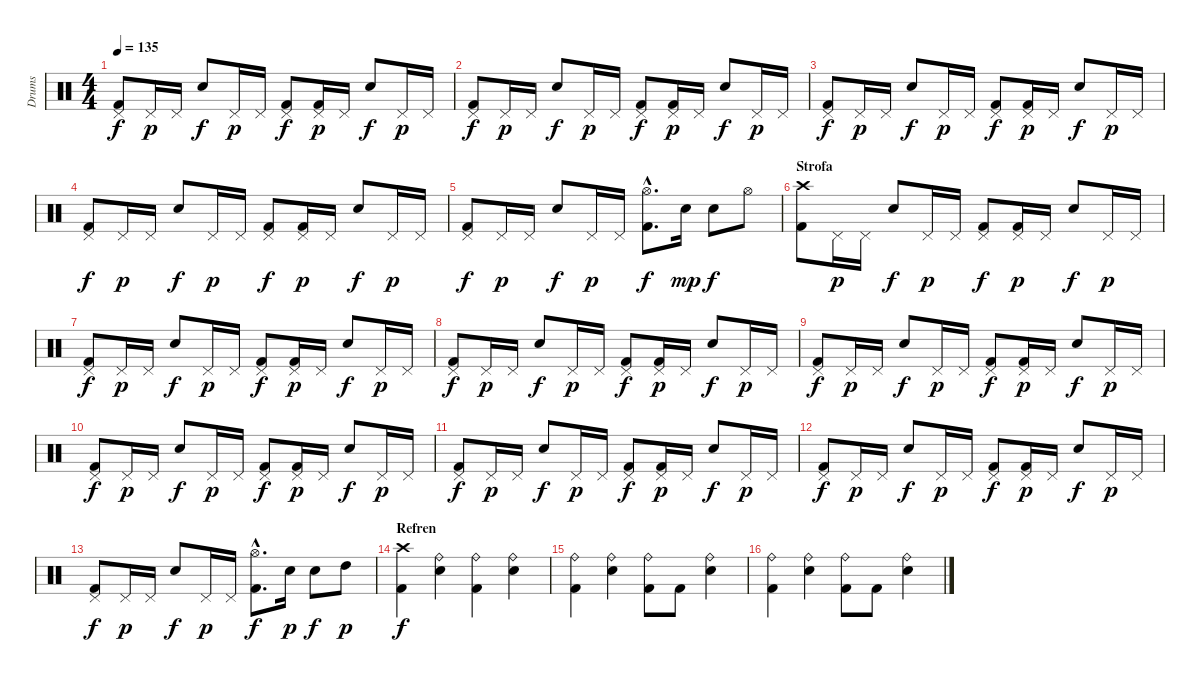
\track ("Drums" "Drums") {instrument percussion}
\staff {score}
\articulation defaults
\ts (4 4)
\tempo 135
\clef neutral
\ks c
("Pedal Hi-Hat (hit)" "Kick (hit) 2").8{dy f} "Pedal Hi-Hat (hit)".16{dy p} "Pedal Hi-Hat (hit)".16 "Electric Snare (hit)".8{dy f} "Pedal Hi-Hat (hit)".16{dy p} "Pedal Hi-Hat (hit)".16 ("Pedal Hi-Hat (hit)" "Kick (hit) 2").8{dy f} ("Pedal Hi-Hat (hit)" "Kick (hit) 2").16{dy p} "Pedal Hi-Hat (hit)".16 "Electric Snare (hit)".8{dy f} "Pedal Hi-Hat (hit)".16{dy p} "Pedal Hi-Hat (hit)".16 |
("Pedal Hi-Hat (hit)" "Kick (hit) 2").8{dy f} "Pedal Hi-Hat (hit)".16{dy p} "Pedal Hi-Hat (hit)".16 "Electric Snare (hit)".8{dy f} "Pedal Hi-Hat (hit)".16{dy p} "Pedal Hi-Hat (hit)".16 ("Pedal Hi-Hat (hit)" "Kick (hit) 2").8{dy f} ("Pedal Hi-Hat (hit)" "Kick (hit) 2").16{dy p} "Pedal Hi-Hat (hit)".16 "Electric Snare (hit)".8{dy f} "Pedal Hi-Hat (hit)".16{dy p} "Pedal Hi-Hat (hit)".16 |
("Pedal Hi-Hat (hit)" "Kick (hit) 2").8{dy f} "Pedal Hi-Hat (hit)".16{dy p} "Pedal Hi-Hat (hit)".16 "Electric Snare (hit)".8{dy f} "Pedal Hi-Hat (hit)".16{dy p} "Pedal Hi-Hat (hit)".16 ("Pedal Hi-Hat (hit)" "Kick (hit) 2").8{dy f} ("Pedal Hi-Hat (hit)" "Kick (hit) 2").16{dy p} "Pedal Hi-Hat (hit)".16 "Electric Snare (hit)".8{dy f} "Pedal Hi-Hat (hit)".16{dy p} "Pedal Hi-Hat (hit)".16 |
("Pedal Hi-Hat (hit)" "Kick (hit) 2").8{dy f} "Pedal Hi-Hat (hit)".16{dy p} "Pedal Hi-Hat (hit)".16 "Electric Snare (hit)".8{dy f} "Pedal Hi-Hat (hit)".16{dy p} "Pedal Hi-Hat (hit)".16 ("Pedal Hi-Hat (hit)" "Kick (hit) 2").8{dy f} ("Pedal Hi-Hat (hit)" "Kick (hit) 2").16{dy p} "Pedal Hi-Hat (hit)".16 "Electric Snare (hit)".8{dy f} "Pedal Hi-Hat (hit)".16{dy p} "Pedal Hi-Hat (hit)".16 |
("Pedal Hi-Hat (hit)" "Kick (hit) 2").8{dy f} "Pedal Hi-Hat (hit)".16{dy p} "Pedal Hi-Hat (hit)".16 "Electric Snare (hit)".8{dy f} "Pedal Hi-Hat (hit)".16{dy p} "Pedal Hi-Hat (hit)".16 ("Hi-Hat (open)"{hac} "Kick (hit) 2"{hac}).8{d dy f} "Electric Snare (hit)".16{dy mp} "Electric Snare (hit)".8{dy f} "Hi-Hat (open)".8 |
\section ("" "Strofa")
("Crash high (hit)" "Kick (hit) 2").8 "Pedal Hi-Hat (hit)".16{dy p} "Pedal Hi-Hat (hit)".16 "Electric Snare (hit)".8{dy f} "Pedal Hi-Hat (hit)".16{dy p} "Pedal Hi-Hat (hit)".16 ("Pedal Hi-Hat (hit)" "Kick (hit) 2").8{dy f} ("Pedal Hi-Hat (hit)" "Kick (hit) 2").16{dy p} "Pedal Hi-Hat (hit)".16 "Electric Snare (hit)".8{dy f} "Pedal Hi-Hat (hit)".16{dy p} "Pedal Hi-Hat (hit)".16 |
("Pedal Hi-Hat (hit)" "Kick (hit) 2").8{dy f} "Pedal Hi-Hat (hit)".16{dy p} "Pedal Hi-Hat (hit)".16 "Electric Snare (hit)".8{dy f} "Pedal Hi-Hat (hit)".16{dy p} "Pedal Hi-Hat (hit)".16 ("Pedal Hi-Hat (hit)" "Kick (hit) 2").8{dy f} ("Pedal Hi-Hat (hit)" "Kick (hit) 2").16{dy p} "Pedal Hi-Hat (hit)".16 "Electric Snare (hit)".8{dy f} "Pedal Hi-Hat (hit)".16{dy p} "Pedal Hi-Hat (hit)".16 |
("Pedal Hi-Hat (hit)" "Kick (hit) 2").8{dy f} "Pedal Hi-Hat (hit)".16{dy p} "Pedal Hi-Hat (hit)".16 "Electric Snare (hit)".8{dy f} "Pedal Hi-Hat (hit)".16{dy p} "Pedal Hi-Hat (hit)".16 ("Pedal Hi-Hat (hit)" "Kick (hit) 2").8{dy f} ("Pedal Hi-Hat (hit)" "Kick (hit) 2").16{dy p} "Pedal Hi-Hat (hit)".16 "Electric Snare (hit)".8{dy f} "Pedal Hi-Hat (hit)".16{dy p} "Pedal Hi-Hat (hit)".16 |
("Pedal Hi-Hat (hit)" "Kick (hit) 2").8{dy f} "Pedal Hi-Hat (hit)".16{dy p} "Pedal Hi-Hat (hit)".16 "Electric Snare (hit)".8{dy f} "Pedal Hi-Hat (hit)".16{dy p} "Pedal Hi-Hat (hit)".16 ("Pedal Hi-Hat (hit)" "Kick (hit) 2").8{dy f} ("Pedal Hi-Hat (hit)" "Kick (hit) 2").16{dy p} "Pedal Hi-Hat (hit)".16 "Electric Snare (hit)".8{dy f} "Pedal Hi-Hat (hit)".16{dy p} "Pedal Hi-Hat (hit)".16 |
("Pedal Hi-Hat (hit)" "Kick (hit) 2").8{dy f} "Pedal Hi-Hat (hit)".16{dy p} "Pedal Hi-Hat (hit)".16 "Electric Snare (hit)".8{dy f} "Pedal Hi-Hat (hit)".16{dy p} "Pedal Hi-Hat (hit)".16 ("Pedal Hi-Hat (hit)" "Kick (hit) 2").8{dy f} ("Pedal Hi-Hat (hit)" "Kick (hit) 2").16{dy p} "Pedal Hi-Hat (hit)".16 "Electric Snare (hit)".8{dy f} "Pedal Hi-Hat (hit)".16{dy p} "Pedal Hi-Hat (hit)".16 |
("Pedal Hi-Hat (hit)" "Kick (hit) 2").8{dy f} "Pedal Hi-Hat (hit)".16{dy p} "Pedal Hi-Hat (hit)".16 "Electric Snare (hit)".8{dy f} "Pedal Hi-Hat (hit)".16{dy p} "Pedal Hi-Hat (hit)".16 ("Pedal Hi-Hat (hit)" "Kick (hit) 2").8{dy f} ("Pedal Hi-Hat (hit)" "Kick (hit) 2").16{dy p} "Pedal Hi-Hat (hit)".16 "Electric Snare (hit)".8{dy f} "Pedal Hi-Hat (hit)".16{dy p} "Pedal Hi-Hat (hit)".16 |
("Pedal Hi-Hat (hit)" "Kick (hit) 2").8{dy f} "Pedal Hi-Hat (hit)".16{dy p} "Pedal Hi-Hat (hit)".16 "Electric Snare (hit)".8{dy f} "Pedal Hi-Hat (hit)".16{dy p} "Pedal Hi-Hat (hit)".16 ("Pedal Hi-Hat (hit)" "Kick (hit) 2").8{dy f} ("Pedal Hi-Hat (hit)" "Kick (hit) 2").16{dy p} "Pedal Hi-Hat (hit)".16 "Electric Snare (hit)".8{dy f} "Pedal Hi-Hat (hit)".16{dy p} "Pedal Hi-Hat (hit)".16 |
("Pedal Hi-Hat (hit)" "Kick (hit) 2").8{dy f} "Pedal Hi-Hat (hit)".16{dy p} "Pedal Hi-Hat (hit)".16 "Electric Snare (hit)".8{dy f} "Pedal Hi-Hat (hit)".16{dy p} "Pedal Hi-Hat (hit)".16 ("Hi-Hat (open)"{hac} "Kick (hit) 2"{hac}).8{d dy f} "Electric Snare (hit)".16{dy p} "Electric Snare (hit)".8{dy f} "High Tom (hit)".8{dy p} |
\section ("" "Refren")
("Crash high (hit)" "Kick (hit) 2").4{dy f} ("Ride (bell)" "Electric Snare (hit)").4 ("Ride (bell)" "Kick (hit) 2").4 ("Ride (bell)" "Electric Snare (hit)").4 |
("Ride (bell)" "Kick (hit) 2").4 ("Ride (bell)" "Electric Snare (hit)").4 ("Ride (bell)" "Kick (hit) 2").8 "Kick (hit) 2".8 ("Ride (bell)" "Electric Snare (hit)").4 |
("Ride (bell)" "Kick (hit) 2").4 ("Ride (bell)" "Electric Snare (hit)").4 ("Ride (bell)" "Kick (hit) 2").8 "Kick (hit) 2".8 ("Ride (bell)" "Electric Snare (hit)").4
